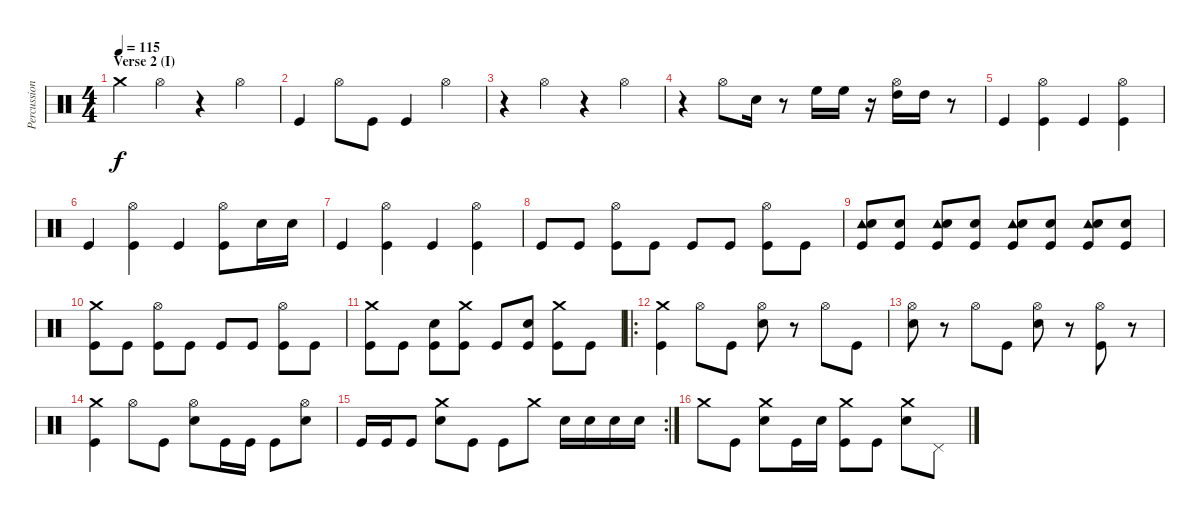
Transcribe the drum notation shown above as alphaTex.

\track ("Percussion" "Percussion") {instrument percussion}
\staff {score}
\articulation defaults
\ts (4 4)
\section ("" "Verse 2 (I)")
\tempo 115
\clef neutral
\ks c "Crash medium (hit)".4{dy f} "Hi-Hat (open)".4
r.4 "Hi-Hat (open)".4 |
"Kick (hit)".4 "Hi-Hat (open)".8 "Kick (hit)".8 "Kick (hit)".4 "Hi-Hat (open)".4 |
r.4 "Hi-Hat (open)".4 r.4 "Hi-Hat (open)".4 |
r.4 "Hi-Hat (open)".8 "Snare (hit) 2".16 r.8 "High Floor Tom (hit)".16 "High Floor Tom (hit)".16 r.16 ("Hi-Hat (open)" "High Tom (hit)").16 "High Tom (hit)".16 r.8 |
"Kick (hit)".4 ("Hi-Hat (open)" "Kick (hit)").4 "Kick (hit)".4 ("Hi-Hat (open)" "Kick (hit)").4 |
"Kick (hit)".4 ("Hi-Hat (open)" "Kick (hit)").4 "Kick (hit)".4 ("Hi-Hat (open)" "Kick (hit)").8 "Snare (hit) 2".16 "Snare (hit) 2".16 |
"Kick (hit)".4 ("Hi-Hat (open)" "Kick (hit)").4 "Kick (hit)".4 ("Hi-Hat (open)" "Kick (hit)").4 |
"Kick (hit)".8 "Kick (hit)".8 ("Hi-Hat (open)" "Kick (hit)").8 "Kick (hit)".8 "Kick (hit)".8 "Kick (hit)".8 ("Hi-Hat (open)" "Kick (hit)").8 "Kick (hit)".8 |
("Tambourine (hit)" "Snare (hit) 2" "Kick (hit)").8 ("Snare (hit) 2" "Kick (hit)").8 ("Tambourine (hit)" "Snare (hit) 2" "Kick (hit)").8 ("Snare (hit) 2" "Kick (hit)").8 ("Tambourine (hit)" "Snare (hit) 2" "Kick (hit)").8 ("Snare (hit) 2" "Kick (hit)").8 ("Tambourine (hit)" "Snare (hit) 2" "Kick (hit)").8 ("Snare (hit) 2" "Kick (hit)").8 |
("Crash medium (hit)" "Kick (hit)").8 "Kick (hit)".8 ("Hi-Hat (open)" "Kick (hit)").8 "Kick (hit)".8 "Kick (hit)".8 "Kick (hit)".8 ("Hi-Hat (open)" "Kick (hit)").8 "Kick (hit)".8 |
("Crash medium (hit)" "Kick (hit)").8 "Kick (hit)".8 ("Snare (hit) 2" "Kick (hit)").8 ("Crash medium (hit)" "Kick (hit)").8 "Kick (hit)".8 ("Snare (hit) 2" "Kick (hit)").8 ("Crash medium (hit)" "Kick (hit)").8 "Kick (hit)".8 |
\ro
("Crash medium (hit)" "Kick (hit)").4 "Hi-Hat (open)".8 "Kick (hit)".8 ("Hi-Hat (open)" "Snare (hit) 2").8 r.8 "Hi-Hat (open)".8 "Kick (hit)".8 |
("Hi-Hat (open)" "Snare (hit) 2").8 r.8 "Hi-Hat (open)".8 "Kick (hit)".8 ("Hi-Hat (open)" "Snare (hit) 2").8 r.8 ("Hi-Hat (open)" "Kick (hit)").8 r.8 |
("Crash medium (hit)" "Kick (hit)").4 "Hi-Hat (open)".8 "Kick (hit)".8 ("Hi-Hat (open)" "Snare (hit) 2").8 "Kick (hit)".16 "Kick (hit)".16 "Kick (hit)".8 ("Hi-Hat (open)" "Snare (hit) 2").8 |
\rc 2 "Kick (hit)".16 "Kick (hit)".16 "Kick (hit)".8
("Crash medium (hit)" "Snare (hit) 2").8 "Kick (hit)".8 "Kick (hit)".8 "Crash medium (hit)".8 "Snare (hit) 2".16 "Snare (hit) 2".16 "Snare (hit) 2".16 "Snare (hit) 2".16 |
"Crash medium (hit)".8 "Kick (hit)".8 ("Crash medium (hit)" "Snare (hit) 2").8 "Kick (hit)".16 "Snare (hit) 2".16 ("Crash medium (hit)" "Kick (hit)").8 "Kick (hit)".8 ("Crash medium (hit)" "Snare (hit) 2").8 "Pedal Hi-Hat (hit)".8
